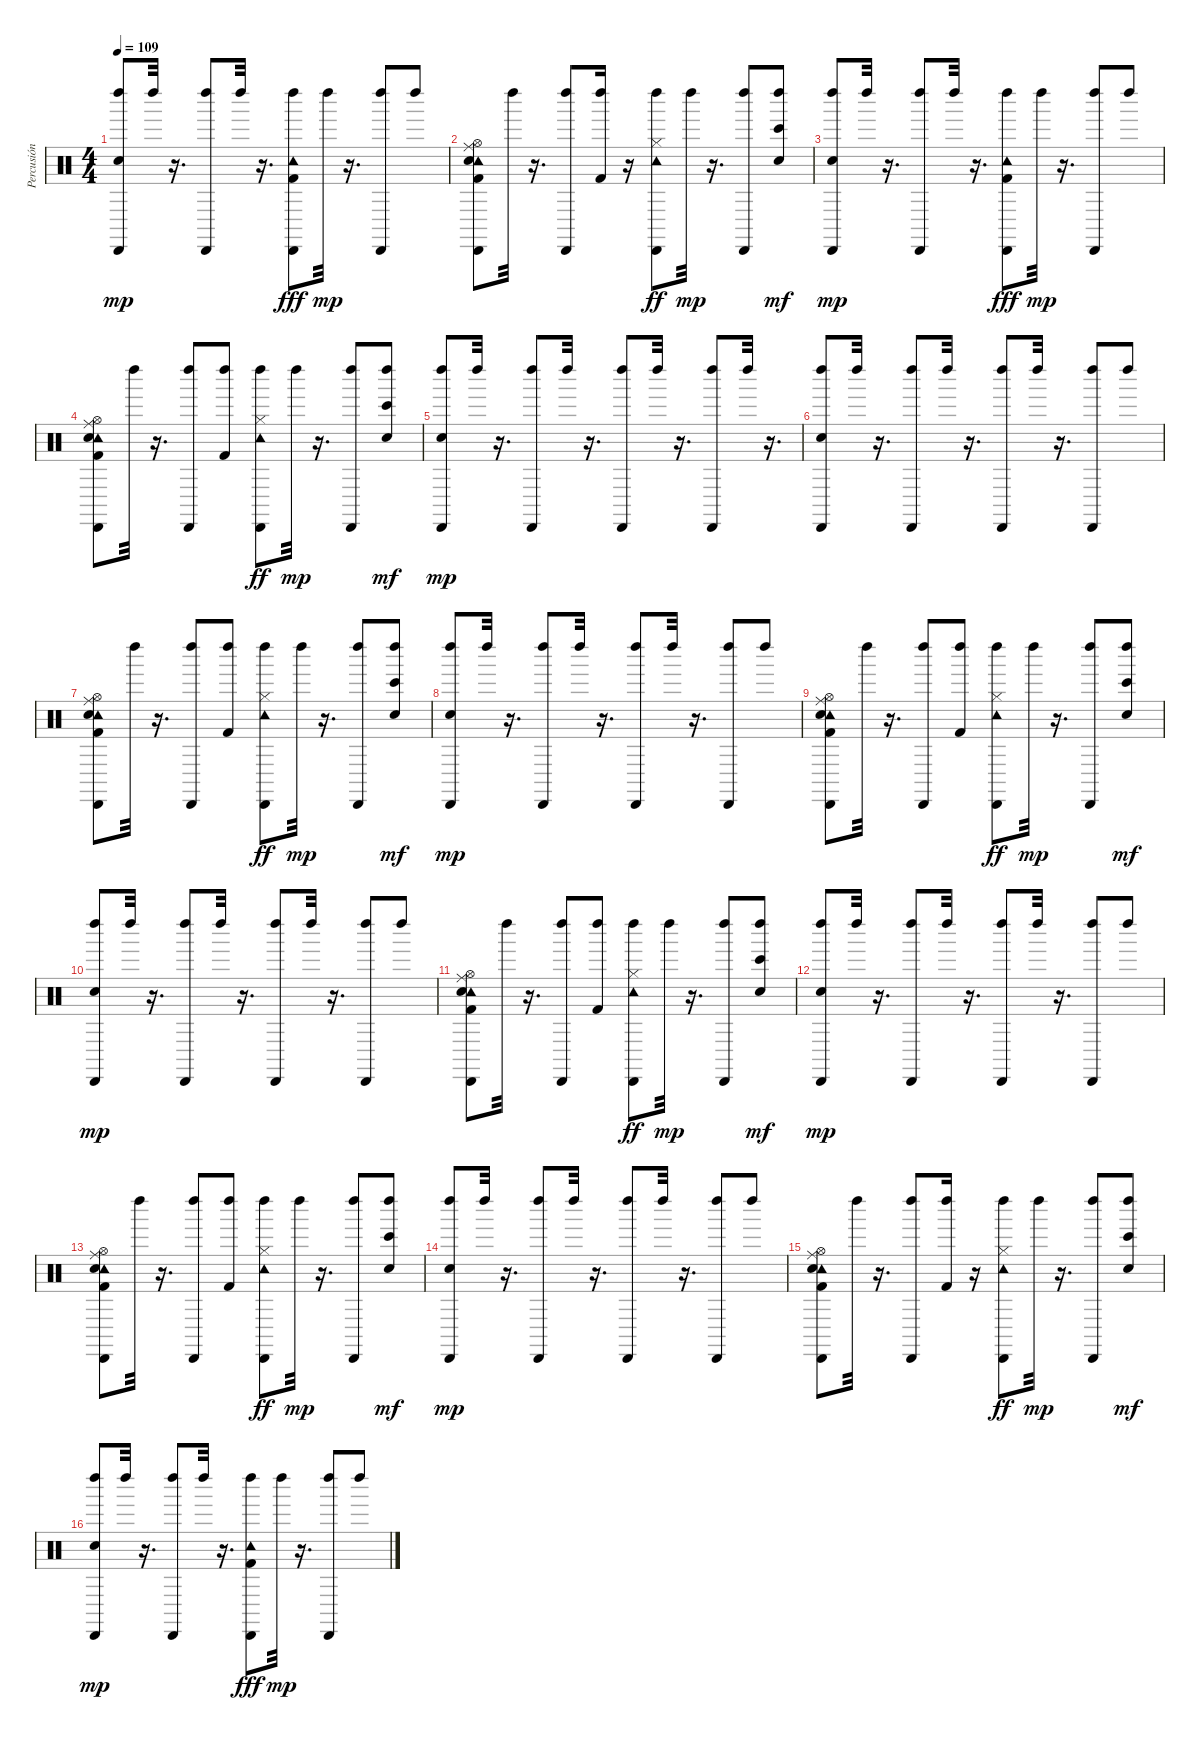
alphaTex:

\track ("Percusión" "Percusión") {instrument percussion}
\staff {score}
\articulation defaults
\ts (4 4)
\tempo 109
\clef neutral
\ks c
("Left Maraca (hit)" "Snare (hit)" "Cabasa (hit)").8{dy mp} "Left Maraca (hit)".32 r.16{d} ("Left Maraca (hit)" "Cabasa (hit)").8 "Left Maraca (hit)".32 r.16{d} ("Cabasa (hit)" "Left Maraca (hit)" "Kick (hit) 2" "Tambourine (hit)").8{dy fff} "Left Maraca (hit)".32{dy mp} r.16{d} ("Cabasa (hit)" "Left Maraca (hit)").8 "Left Maraca (hit)".8 |
("Ride (middle)" "Kick (hit) 2" "Hi-Hat (open)" "Tambourine (hit)" "Snare (hit)" "Cabasa (hit)").8 "Left Maraca (hit)".32 r.16{d} ("Cabasa (hit)" "Left Maraca (hit)").8 ("Kick (hit) 2" "Left Maraca (hit)").16 r.16 ("Left Maraca (hit)" "Cabasa (hit)" "Hi-Hat (closed)" "Tambourine (hit)").8{dy ff} "Left Maraca (hit)".32{dy mp} r.16{d} ("Cabasa (hit)" "Left Maraca (hit)").8 ("Left Maraca (hit)" "Snare (hit)" "Bongo High (hit)").8{dy mf} |
("Left Maraca (hit)" "Snare (hit)" "Cabasa (hit)").8{dy mp} "Left Maraca (hit)".32 r.16{d} ("Left Maraca (hit)" "Cabasa (hit)").8 "Left Maraca (hit)".32 r.16{d} ("Cabasa (hit)" "Left Maraca (hit)" "Kick (hit) 2" "Tambourine (hit)").8{dy fff} "Left Maraca (hit)".32{dy mp} r.16{d} ("Cabasa (hit)" "Left Maraca (hit)").8 "Left Maraca (hit)".8 |
("Ride (middle)" "Kick (hit) 2" "Hi-Hat (open)" "Tambourine (hit)" "Snare (hit)" "Cabasa (hit)").8 "Left Maraca (hit)".32 r.16{d} ("Cabasa (hit)" "Left Maraca (hit)").8 ("Kick (hit) 2" "Left Maraca (hit)").8 ("Left Maraca (hit)" "Cabasa (hit)" "Hi-Hat (closed)" "Tambourine (hit)").8{dy ff} "Left Maraca (hit)".32{dy mp} r.16{d} ("Cabasa (hit)" "Left Maraca (hit)").8 ("Left Maraca (hit)" "Snare (hit)" "Bongo High (hit)").8{dy mf} |
("Left Maraca (hit)" "Snare (hit)" "Cabasa (hit)").8{dy mp} "Left Maraca (hit)".32 r.16{d} ("Left Maraca (hit)" "Cabasa (hit)").8 "Left Maraca (hit)".32 r.16{d} ("Cabasa (hit)" "Left Maraca (hit)").8 "Left Maraca (hit)".32 r.16{d} ("Cabasa (hit)" "Left Maraca (hit)").8 "Left Maraca (hit)".32 r.16{d} |
("Left Maraca (hit)" "Snare (hit)" "Cabasa (hit)").8 "Left Maraca (hit)".32 r.16{d} ("Left Maraca (hit)" "Cabasa (hit)").8 "Left Maraca (hit)".32 r.16{d} ("Cabasa (hit)" "Left Maraca (hit)").8 "Left Maraca (hit)".32 r.16{d} ("Cabasa (hit)" "Left Maraca (hit)").8 "Left Maraca (hit)".8 |
("Ride (middle)" "Kick (hit) 2" "Hi-Hat (open)" "Tambourine (hit)" "Snare (hit)" "Cabasa (hit)").8 "Left Maraca (hit)".32 r.16{d} ("Cabasa (hit)" "Left Maraca (hit)").8 ("Kick (hit) 2" "Left Maraca (hit)").8 ("Left Maraca (hit)" "Cabasa (hit)" "Hi-Hat (closed)" "Tambourine (hit)").8{dy ff} "Left Maraca (hit)".32{dy mp} r.16{d} ("Cabasa (hit)" "Left Maraca (hit)").8 ("Left Maraca (hit)" "Snare (hit)" "Bongo High (hit)").8{dy mf} |
("Left Maraca (hit)" "Snare (hit)" "Cabasa (hit)").8{dy mp} "Left Maraca (hit)".32 r.16{d} ("Left Maraca (hit)" "Cabasa (hit)").8 "Left Maraca (hit)".32 r.16{d} ("Cabasa (hit)" "Left Maraca (hit)").8 "Left Maraca (hit)".32 r.16{d} ("Cabasa (hit)" "Left Maraca (hit)").8 "Left Maraca (hit)".8 |
("Ride (middle)" "Kick (hit) 2" "Hi-Hat (open)" "Tambourine (hit)" "Snare (hit)" "Cabasa (hit)").8 "Left Maraca (hit)".32 r.16{d} ("Cabasa (hit)" "Left Maraca (hit)").8 ("Kick (hit) 2" "Left Maraca (hit)").8 ("Left Maraca (hit)" "Cabasa (hit)" "Hi-Hat (closed)" "Tambourine (hit)").8{dy ff} "Left Maraca (hit)".32{dy mp} r.16{d} ("Cabasa (hit)" "Left Maraca (hit)").8 ("Left Maraca (hit)" "Snare (hit)" "Bongo High (hit)").8{dy mf} |
("Left Maraca (hit)" "Snare (hit)" "Cabasa (hit)").8{dy mp} "Left Maraca (hit)".32 r.16{d} ("Left Maraca (hit)" "Cabasa (hit)").8 "Left Maraca (hit)".32 r.16{d} ("Cabasa (hit)" "Left Maraca (hit)").8 "Left Maraca (hit)".32 r.16{d} ("Cabasa (hit)" "Left Maraca (hit)").8 "Left Maraca (hit)".8 |
("Ride (middle)" "Kick (hit) 2" "Hi-Hat (open)" "Tambourine (hit)" "Snare (hit)" "Cabasa (hit)").8 "Left Maraca (hit)".32 r.16{d} ("Cabasa (hit)" "Left Maraca (hit)").8 ("Kick (hit) 2" "Left Maraca (hit)").8 ("Left Maraca (hit)" "Cabasa (hit)" "Hi-Hat (closed)" "Tambourine (hit)").8{dy ff} "Left Maraca (hit)".32{dy mp} r.16{d} ("Cabasa (hit)" "Left Maraca (hit)").8 ("Left Maraca (hit)" "Snare (hit)" "Bongo High (hit)").8{dy mf} |
("Left Maraca (hit)" "Snare (hit)" "Cabasa (hit)").8{dy mp} "Left Maraca (hit)".32 r.16{d} ("Left Maraca (hit)" "Cabasa (hit)").8 "Left Maraca (hit)".32 r.16{d} ("Cabasa (hit)" "Left Maraca (hit)").8 "Left Maraca (hit)".32 r.16{d} ("Cabasa (hit)" "Left Maraca (hit)").8 "Left Maraca (hit)".8 |
("Ride (middle)" "Kick (hit) 2" "Hi-Hat (open)" "Tambourine (hit)" "Snare (hit)" "Cabasa (hit)").8 "Left Maraca (hit)".32 r.16{d} ("Cabasa (hit)" "Left Maraca (hit)").8 ("Kick (hit) 2" "Left Maraca (hit)").8 ("Left Maraca (hit)" "Cabasa (hit)" "Hi-Hat (closed)" "Tambourine (hit)").8{dy ff} "Left Maraca (hit)".32{dy mp} r.16{d} ("Cabasa (hit)" "Left Maraca (hit)").8 ("Left Maraca (hit)" "Snare (hit)" "Bongo High (hit)").8{dy mf} |
("Left Maraca (hit)" "Snare (hit)" "Cabasa (hit)").8{dy mp} "Left Maraca (hit)".32 r.16{d} ("Left Maraca (hit)" "Cabasa (hit)").8 "Left Maraca (hit)".32 r.16{d} ("Cabasa (hit)" "Left Maraca (hit)").8 "Left Maraca (hit)".32 r.16{d} ("Cabasa (hit)" "Left Maraca (hit)").8 "Left Maraca (hit)".8 |
("Ride (middle)" "Kick (hit) 2" "Hi-Hat (open)" "Tambourine (hit)" "Snare (hit)" "Cabasa (hit)").8 "Left Maraca (hit)".32 r.16{d} ("Cabasa (hit)" "Left Maraca (hit)").8 ("Kick (hit) 2" "Left Maraca (hit)").16 r.16 ("Left Maraca (hit)" "Cabasa (hit)" "Hi-Hat (closed)" "Tambourine (hit)").8{dy ff} "Left Maraca (hit)".32{dy mp} r.16{d} ("Cabasa (hit)" "Left Maraca (hit)").8 ("Left Maraca (hit)" "Snare (hit)" "Bongo High (hit)").8{dy mf} |
("Left Maraca (hit)" "Snare (hit)" "Cabasa (hit)").8{dy mp} "Left Maraca (hit)".32 r.16{d} ("Left Maraca (hit)" "Cabasa (hit)").8 "Left Maraca (hit)".32 r.16{d} ("Cabasa (hit)" "Left Maraca (hit)" "Kick (hit) 2" "Tambourine (hit)").8{dy fff} "Left Maraca (hit)".32{dy mp} r.16{d} ("Cabasa (hit)" "Left Maraca (hit)").8 "Left Maraca (hit)".8
